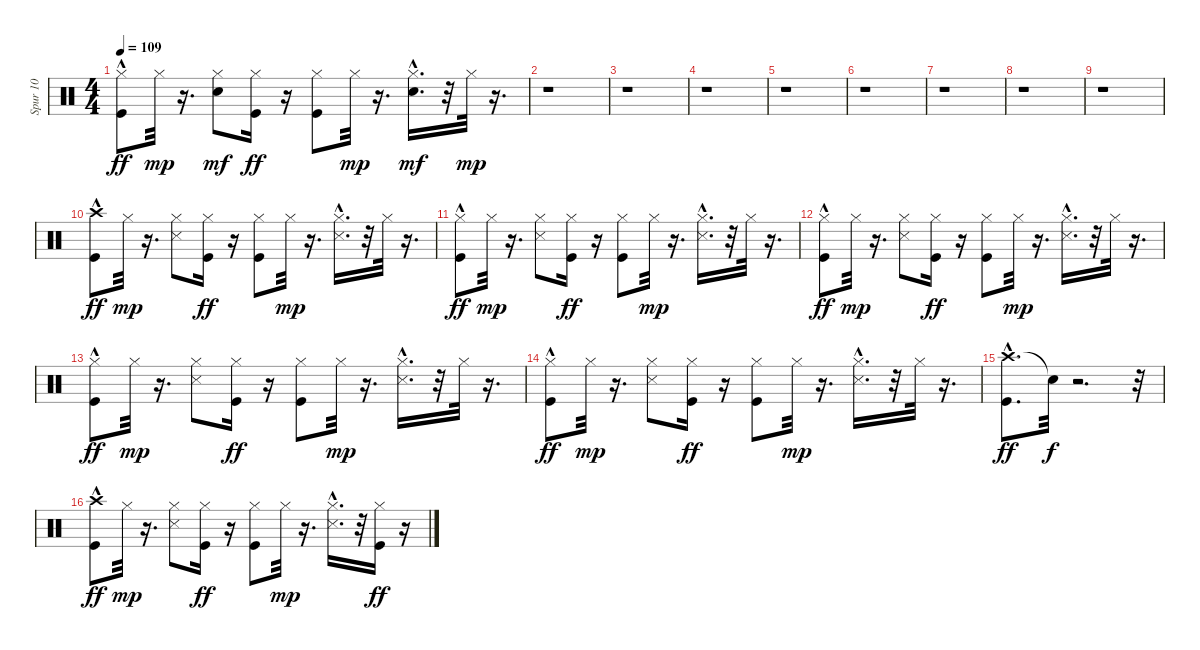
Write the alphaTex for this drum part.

\track ("Spur 10" "Spur 10") {instrument percussion}
\staff {score}
\articulation defaults
\ts (4 4)
\tempo 109
\clef neutral
\ks c
("Hi-Hat (closed)" "Kick (hit)"{hac}).8{dy ff} "Hi-Hat (closed)".32{dy mp} r.16{d} ("Hi-Hat (closed)" "Electric Snare (hit)").8{dy mf} ("Hi-Hat (closed)" "Kick (hit)").16{dy ff} r.16 ("Hi-Hat (closed)" "Kick (hit)").8 "Hi-Hat (closed)".32{dy mp} r.16{d} ("Hi-Hat (closed)" "Electric Snare (hit)"{hac}).16{d dy mf} r.32 "Hi-Hat (closed)".32{dy mp} r.16{d} |
r.1 |
r.1 |
r.1 |
r.1 |
r.1 |
r.1 |
r.1 |
r.1 |
("Crash high (hit)" "Kick (hit)"{hac}).8{dy ff} "Hi-Hat (closed)".32{dy mp} r.16{d} ("Hi-Hat (closed)" "Snare (side stick) 3").8 ("Hi-Hat (closed)" "Kick (hit)").16{dy ff} r.16 ("Hi-Hat (closed)" "Kick (hit)").8 "Hi-Hat (closed)".32{dy mp} r.16{d} ("Hi-Hat (closed)" "Snare (side stick) 3"{hac}).16{d} r.32 "Hi-Hat (closed)".32 r.16{d} |
("Hi-Hat (closed)" "Kick (hit)"{hac}).8{dy ff} "Hi-Hat (closed)".32{dy mp} r.16{d} ("Hi-Hat (closed)" "Snare (side stick) 3").8 ("Hi-Hat (closed)" "Kick (hit)").16{dy ff} r.16 ("Hi-Hat (closed)" "Kick (hit)").8 "Hi-Hat (closed)".32{dy mp} r.16{d} ("Hi-Hat (closed)" "Snare (side stick) 3"{hac}).16{d} r.32 "Hi-Hat (closed)".32 r.16{d} |
("Hi-Hat (closed)" "Kick (hit)"{hac}).8{dy ff} "Hi-Hat (closed)".32{dy mp} r.16{d} ("Hi-Hat (closed)" "Snare (side stick) 3").8 ("Hi-Hat (closed)" "Kick (hit)").16{dy ff} r.16 ("Hi-Hat (closed)" "Kick (hit)").8 "Hi-Hat (closed)".32{dy mp} r.16{d} ("Hi-Hat (closed)" "Snare (side stick) 3"{hac}).16{d} r.32 "Hi-Hat (closed)".32 r.16{d} |
("Hi-Hat (closed)" "Kick (hit)"{hac}).8{dy ff} "Hi-Hat (closed)".32{dy mp} r.16{d} ("Hi-Hat (closed)" "Snare (side stick) 3").8 ("Hi-Hat (closed)" "Kick (hit)").16{dy ff} r.16 ("Hi-Hat (closed)" "Kick (hit)").8 "Hi-Hat (closed)".32{dy mp} r.16{d} ("Hi-Hat (closed)" "Snare (side stick) 3"{hac}).16{d} r.32 "Hi-Hat (closed)".32 r.16{d} |
("Hi-Hat (closed)" "Kick (hit)"{hac}).8{dy ff} "Hi-Hat (closed)".32{dy mp} r.16{d} ("Hi-Hat (closed)" "Snare (side stick) 3").8 ("Hi-Hat (closed)" "Kick (hit)").16{dy ff} r.16 ("Hi-Hat (closed)" "Kick (hit)").8 "Hi-Hat (closed)".32{dy mp} r.16{d} ("Hi-Hat (closed)" "Snare (side stick) 3"{hac}).16{d} r.32 "Hi-Hat (closed)".32 r.16{d} |
("Crash high (hit)" "Kick (hit)"{hac}).8{d dy ff} "Snare (hit)"{t}.32{dy f} r.2{d} r.32 |
("Crash high (hit)" "Kick (hit)"{hac}).8{dy ff} "Hi-Hat (closed)".32{dy mp} r.16{d} ("Hi-Hat (closed)" "Snare (side stick) 3").8 ("Hi-Hat (closed)" "Kick (hit)").16{dy ff} r.16 ("Hi-Hat (closed)" "Kick (hit)").8 "Hi-Hat (closed)".32{dy mp} r.16{d} ("Hi-Hat (closed)" "Snare (side stick) 3"{hac}).16{d} r.32 ("Hi-Hat (closed)" "Kick (hit)").16{dy ff} r.16
